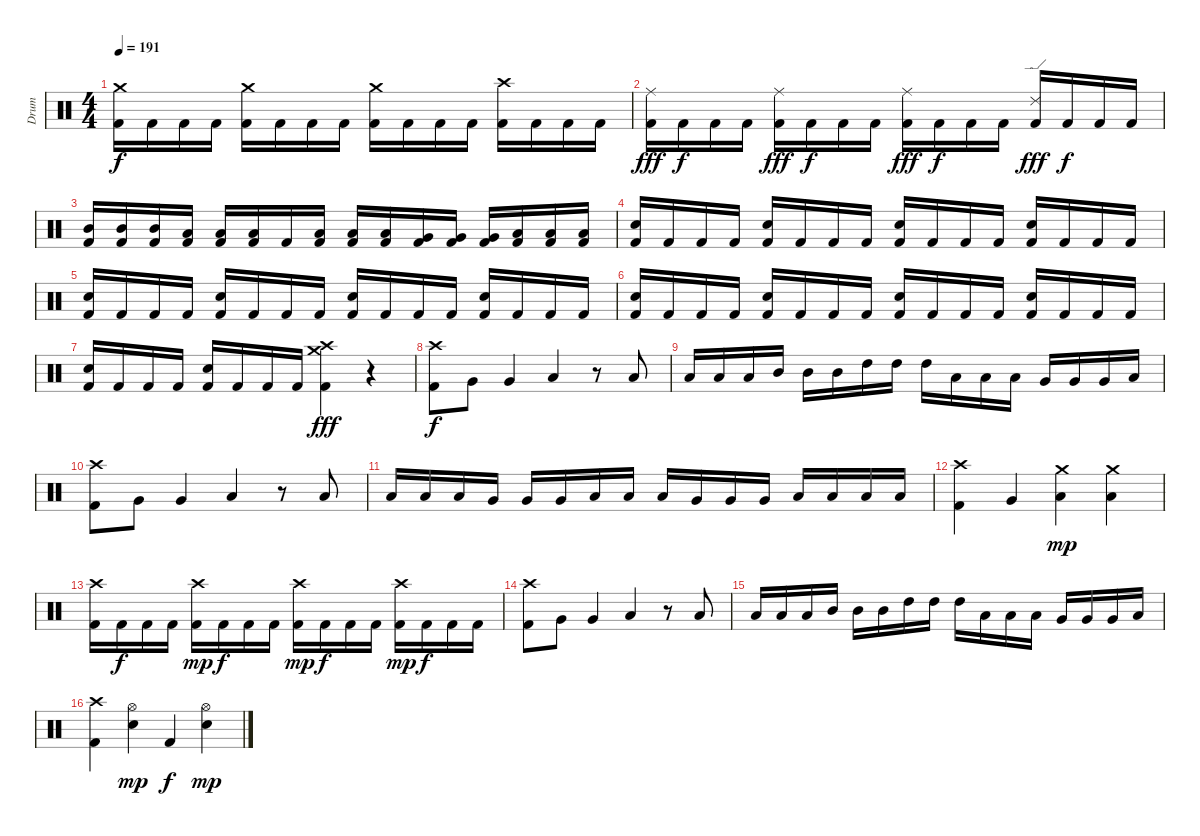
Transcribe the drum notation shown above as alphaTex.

\track ("Drum" "Drum") {instrument percussion}
\staff {score}
\articulation defaults
\ts (4 4)
\tempo 191
\clef neutral
\ks c
("Kick (hit) 2" "Crash medium (hit)").16{dy f} "Kick (hit) 2".16 "Kick (hit) 2".16 "Kick (hit) 2".16 ("Kick (hit) 2" "Crash medium (hit)").16 "Kick (hit) 2".16 "Kick (hit) 2".16 "Kick (hit) 2".16 ("Kick (hit) 2" "Crash medium (hit)").16 "Kick (hit) 2".16 "Kick (hit) 2".16 "Kick (hit) 2".16 ("Kick (hit) 2" "Crash high (hit)").16 "Kick (hit) 2".16 "Kick (hit) 2".16 "Kick (hit) 2".16 |
("Kick (hit) 2" "Ride (middle)").16{dy fff} "Kick (hit) 2".16{dy f} "Kick (hit) 2".16 "Kick (hit) 2".16 ("Kick (hit) 2" "Ride (middle)").16{dy fff} "Kick (hit) 2".16{dy f} "Kick (hit) 2".16 "Kick (hit) 2".16 ("Kick (hit) 2" "Ride (middle)").16{dy fff} "Kick (hit) 2".16{dy f} "Kick (hit) 2".16 "Kick (hit) 2".16 ("Kick (hit) 2" "Ride (edge) 2").16{dy fff} "Kick (hit) 2".16{dy f} "Kick (hit) 2".16 "Kick (hit) 2".16 |
("Kick (hit) 2" "Mid Tom (hit)").16 ("Kick (hit) 2" "Mid Tom (hit)").16 ("Kick (hit) 2" "Mid Tom (hit)").16 ("Kick (hit) 2" "Low Tom (hit)").16 ("Kick (hit) 2" "Low Tom (hit)").16 ("Kick (hit) 2" "Low Tom (hit)").16 "Kick (hit) 2".16 ("Kick (hit) 2" "Low Tom (hit)").16 ("Kick (hit) 2" "Low Tom (hit)").16 ("Kick (hit) 2" "Low Tom (hit)").16 ("Kick (hit) 2" "Very Low Tom (hit)").16 ("Kick (hit) 2" "Very Low Tom (hit)").16 ("Kick (hit) 2" "Very Low Tom (hit)").16 ("Kick (hit) 2" "Low Floor Tom (hit)").16 ("Kick (hit) 2" "Low Floor Tom (hit)").16 ("Kick (hit) 2" "Low Floor Tom (hit)").16 |
("Kick (hit) 2" "Snare (hit) 2").16 "Kick (hit) 2".16 "Kick (hit) 2".16 "Kick (hit) 2".16 ("Kick (hit) 2" "Snare (hit) 2").16 "Kick (hit) 2".16 "Kick (hit) 2".16 "Kick (hit) 2".16 ("Kick (hit) 2" "Snare (hit) 2").16 "Kick (hit) 2".16 "Kick (hit) 2".16 "Kick (hit) 2".16 ("Kick (hit) 2" "Snare (hit) 2").16 "Kick (hit) 2".16 "Kick (hit) 2".16 "Kick (hit) 2".16 |
("Kick (hit) 2" "Snare (hit) 2").16 "Kick (hit) 2".16 "Kick (hit) 2".16 "Kick (hit) 2".16 ("Kick (hit) 2" "Snare (hit) 2").16 "Kick (hit) 2".16 "Kick (hit) 2".16 "Kick (hit) 2".16 ("Kick (hit) 2" "Snare (hit) 2").16 "Kick (hit) 2".16 "Kick (hit) 2".16 "Kick (hit) 2".16 ("Kick (hit) 2" "Snare (hit) 2").16 "Kick (hit) 2".16 "Kick (hit) 2".16 "Kick (hit) 2".16 |
("Kick (hit) 2" "Snare (hit) 2").16 "Kick (hit) 2".16 "Kick (hit) 2".16 "Kick (hit) 2".16 ("Kick (hit) 2" "Snare (hit) 2").16 "Kick (hit) 2".16 "Kick (hit) 2".16 "Kick (hit) 2".16 ("Kick (hit) 2" "Snare (hit) 2").16 "Kick (hit) 2".16 "Kick (hit) 2".16 "Kick (hit) 2".16 ("Kick (hit) 2" "Snare (hit) 2").16 "Kick (hit) 2".16 "Kick (hit) 2".16 "Kick (hit) 2".16 |
("Kick (hit) 2" "Snare (hit) 2").16 "Kick (hit) 2".16 "Kick (hit) 2".16 "Kick (hit) 2".16 ("Kick (hit) 2" "Snare (hit) 2").16 "Kick (hit) 2".16 "Kick (hit) 2".16 "Kick (hit) 2".16 ("Kick (hit) 2" "Crash medium (hit)" "Crash high (hit)").4{dy fff} r.4 |
("Kick (hit) 2" "Crash high (hit)").8{dy f} "Very Low Tom (hit)".8 "Very Low Tom (hit)".4 "Low Floor Tom (hit)".4 r.8 "Low Floor Tom (hit)".8 |
"Low Tom (hit)".16 "Low Tom (hit)".16 "Low Tom (hit)".16 "Mid Tom (hit)".16 "Mid Tom (hit)".16 "Mid Tom (hit)".16 "High Tom (hit)".16 "High Tom (hit)".16 "High Tom (hit)".16 "Low Tom (hit)".16 "Low Tom (hit)".16 "Low Tom (hit)".16 "Very Low Tom (hit)".16 "Very Low Tom (hit)".16 "Very Low Tom (hit)".16 "Low Floor Tom (hit)".16 |
("Kick (hit) 2" "Crash high (hit)").8 "Very Low Tom (hit)".8 "Very Low Tom (hit)".4 "Low Floor Tom (hit)".4 r.8 "Low Floor Tom (hit)".8 |
"Low Floor Tom (hit)".16 "Low Floor Tom (hit)".16 "Low Floor Tom (hit)".16 "Very Low Tom (hit)".16 "Very Low Tom (hit)".16 "Very Low Tom (hit)".16 "Low Tom (hit)".16 "Low Tom (hit)".16 "Low Tom (hit)".16 "Very Low Tom (hit)".16 "Very Low Tom (hit)".16 "Very Low Tom (hit)".16 "Low Floor Tom (hit)".16 "Low Floor Tom (hit)".16 "Low Floor Tom (hit)".16 "Low Floor Tom (hit)".16 |
("Kick (hit) 2" "Crash high (hit)").4 "Very Low Tom (hit)".4 ("Low Floor Tom (hit)" "Crash medium (hit)").4{dy mp} ("Low Floor Tom (hit)" "Crash medium (hit)").4 |
("Kick (hit) 2" "Crash high (hit)").16 "Kick (hit) 2".16{dy f} "Kick (hit) 2".16 "Kick (hit) 2".16 ("Kick (hit) 2" "Crash high (hit)").16{dy mp} "Kick (hit) 2".16{dy f} "Kick (hit) 2".16 "Kick (hit) 2".16 ("Kick (hit) 2" "Crash high (hit)").16{dy mp} "Kick (hit) 2".16{dy f} "Kick (hit) 2".16 "Kick (hit) 2".16 ("Kick (hit) 2" "Crash high (hit)").16{dy mp} "Kick (hit) 2".16{dy f} "Kick (hit) 2".16 "Kick (hit) 2".16 |
("Kick (hit) 2" "Crash high (hit)").8 "Very Low Tom (hit)".8 "Very Low Tom (hit)".4 "Low Floor Tom (hit)".4 r.8 "Low Floor Tom (hit)".8 |
"Low Tom (hit)".16 "Low Tom (hit)".16 "Low Tom (hit)".16 "Mid Tom (hit)".16 "Mid Tom (hit)".16 "Mid Tom (hit)".16 "High Tom (hit)".16 "High Tom (hit)".16 "High Tom (hit)".16 "Low Tom (hit)".16 "Low Tom (hit)".16 "Low Tom (hit)".16 "Very Low Tom (hit)".16 "Very Low Tom (hit)".16 "Very Low Tom (hit)".16 "Low Floor Tom (hit)".16 |
("Kick (hit) 2" "Crash high (hit)").4 ("Snare (hit) 2" "Hi-Hat (open)").4{dy mp} "Kick (hit) 2".4{dy f} ("Snare (hit) 2" "Hi-Hat (open)").4{dy mp}
